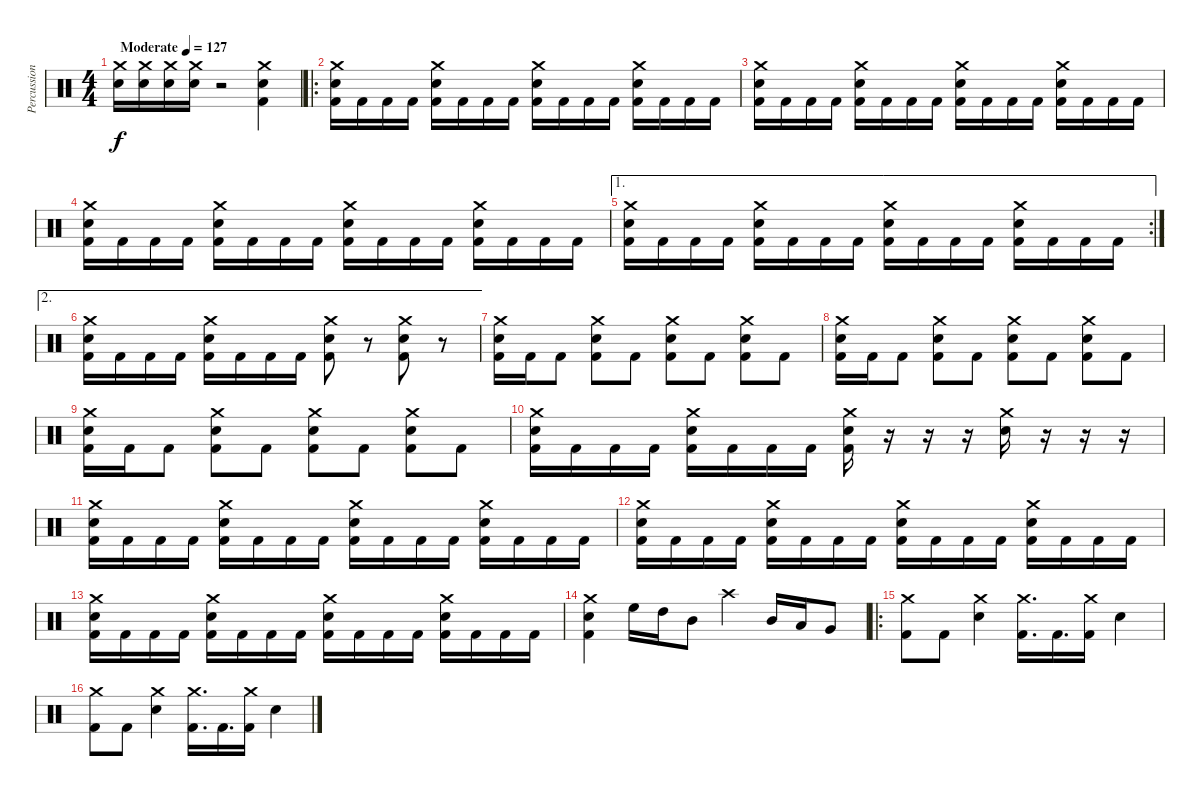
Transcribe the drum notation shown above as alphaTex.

\track ("Percussion" "Percussion") {instrument percussion}
\staff {score}
\articulation defaults
\ts (4 4)
\tempo (127 "Moderate")
\clef neutral
\ks c
("Crash medium (hit)" "Electric Snare (hit)").16{dy f} ("Crash medium (hit)" "Electric Snare (hit)").16 ("Crash medium (hit)" "Electric Snare (hit)").16 ("Crash medium (hit)" "Electric Snare (hit)").16 r.2 ("Crash medium (hit)" "Electric Snare (hit)" "Kick (hit) 2").4 |
\ro
("Crash medium (hit)" "Electric Snare (hit)" "Kick (hit) 2").16 "Kick (hit) 2".16 "Kick (hit) 2".16 "Kick (hit) 2".16 ("Crash medium (hit)" "Electric Snare (hit)" "Kick (hit) 2").16 "Kick (hit) 2".16 "Kick (hit) 2".16 "Kick (hit) 2".16 ("Crash medium (hit)" "Electric Snare (hit)" "Kick (hit) 2").16 "Kick (hit) 2".16 "Kick (hit) 2".16 "Kick (hit) 2".16 ("Crash medium (hit)" "Electric Snare (hit)" "Kick (hit) 2").16 "Kick (hit) 2".16 "Kick (hit) 2".16 "Kick (hit) 2".16 |
("Crash medium (hit)" "Electric Snare (hit)" "Kick (hit) 2").16 "Kick (hit) 2".16 "Kick (hit) 2".16 "Kick (hit) 2".16 ("Crash medium (hit)" "Electric Snare (hit)" "Kick (hit) 2").16 "Kick (hit) 2".16 "Kick (hit) 2".16 "Kick (hit) 2".16 ("Crash medium (hit)" "Electric Snare (hit)" "Kick (hit) 2").16 "Kick (hit) 2".16 "Kick (hit) 2".16 "Kick (hit) 2".16 ("Crash medium (hit)" "Electric Snare (hit)" "Kick (hit) 2").16 "Kick (hit) 2".16 "Kick (hit) 2".16 "Kick (hit) 2".16 |
("Crash medium (hit)" "Electric Snare (hit)" "Kick (hit) 2").16 "Kick (hit) 2".16 "Kick (hit) 2".16 "Kick (hit) 2".16 ("Crash medium (hit)" "Electric Snare (hit)" "Kick (hit) 2").16 "Kick (hit) 2".16 "Kick (hit) 2".16 "Kick (hit) 2".16 ("Crash medium (hit)" "Electric Snare (hit)" "Kick (hit) 2").16 "Kick (hit) 2".16 "Kick (hit) 2".16 "Kick (hit) 2".16 ("Crash medium (hit)" "Electric Snare (hit)" "Kick (hit) 2").16 "Kick (hit) 2".16 "Kick (hit) 2".16 "Kick (hit) 2".16 |
\ae 1
\rc 2
("Crash medium (hit)" "Electric Snare (hit)" "Kick (hit) 2").16 "Kick (hit) 2".16 "Kick (hit) 2".16 "Kick (hit) 2".16 ("Crash medium (hit)" "Electric Snare (hit)" "Kick (hit) 2").16 "Kick (hit) 2".16 "Kick (hit) 2".16 "Kick (hit) 2".16 ("Crash medium (hit)" "Electric Snare (hit)" "Kick (hit) 2").16 "Kick (hit) 2".16 "Kick (hit) 2".16 "Kick (hit) 2".16 ("Crash medium (hit)" "Electric Snare (hit)" "Kick (hit) 2").16 "Kick (hit) 2".16 "Kick (hit) 2".16 "Kick (hit) 2".16 |
\ae 2
("Crash medium (hit)" "Electric Snare (hit)" "Kick (hit) 2").16 "Kick (hit) 2".16 "Kick (hit) 2".16 "Kick (hit) 2".16 ("Crash medium (hit)" "Electric Snare (hit)" "Kick (hit) 2").16 "Kick (hit) 2".16 "Kick (hit) 2".16 "Kick (hit) 2".16 ("Crash medium (hit)" "Electric Snare (hit)" "Kick (hit) 2").8 r.8 ("Crash medium (hit)" "Electric Snare (hit)" "Kick (hit) 2").8 r.8 |
("Crash medium (hit)" "Electric Snare (hit)" "Kick (hit) 2").16 "Kick (hit) 2".16 "Kick (hit) 2".8 ("Crash medium (hit)" "Electric Snare (hit)" "Kick (hit) 2").8 "Kick (hit) 2".8 ("Crash medium (hit)" "Electric Snare (hit)" "Kick (hit) 2").8 "Kick (hit) 2".8 ("Crash medium (hit)" "Electric Snare (hit)" "Kick (hit) 2").8 "Kick (hit) 2".8 |
("Crash medium (hit)" "Electric Snare (hit)" "Kick (hit) 2").16 "Kick (hit) 2".16 "Kick (hit) 2".8 ("Crash medium (hit)" "Electric Snare (hit)" "Kick (hit) 2").8 "Kick (hit) 2".8 ("Crash medium (hit)" "Electric Snare (hit)" "Kick (hit) 2").8 "Kick (hit) 2".8 ("Crash medium (hit)" "Electric Snare (hit)" "Kick (hit) 2").8 "Kick (hit) 2".8 |
("Crash medium (hit)" "Electric Snare (hit)" "Kick (hit) 2").16 "Kick (hit) 2".16 "Kick (hit) 2".8 ("Crash medium (hit)" "Electric Snare (hit)" "Kick (hit) 2").8 "Kick (hit) 2".8 ("Crash medium (hit)" "Electric Snare (hit)" "Kick (hit) 2").8 "Kick (hit) 2".8 ("Crash medium (hit)" "Electric Snare (hit)" "Kick (hit) 2").8 "Kick (hit) 2".8 |
("Crash medium (hit)" "Electric Snare (hit)" "Kick (hit) 2").16 "Kick (hit) 2".16 "Kick (hit) 2".16 "Kick (hit) 2".16 ("Crash medium (hit)" "Electric Snare (hit)" "Kick (hit) 2").16 "Kick (hit) 2".16 "Kick (hit) 2".16 "Kick (hit) 2".16 ("Crash medium (hit)" "Electric Snare (hit)" "Kick (hit) 2").16 r.16 r.16 r.16 ("Crash medium (hit)" "Electric Snare (hit)").16 r.16 r.16 r.16 |
("Crash medium (hit)" "Electric Snare (hit)" "Kick (hit) 2").16 "Kick (hit) 2".16 "Kick (hit) 2".16 "Kick (hit) 2".16 ("Crash medium (hit)" "Electric Snare (hit)" "Kick (hit) 2").16 "Kick (hit) 2".16 "Kick (hit) 2".16 "Kick (hit) 2".16 ("Crash medium (hit)" "Electric Snare (hit)" "Kick (hit) 2").16 "Kick (hit) 2".16 "Kick (hit) 2".16 "Kick (hit) 2".16 ("Crash medium (hit)" "Electric Snare (hit)" "Kick (hit) 2").16 "Kick (hit) 2".16 "Kick (hit) 2".16 "Kick (hit) 2".16 |
("Crash medium (hit)" "Electric Snare (hit)" "Kick (hit) 2").16 "Kick (hit) 2".16 "Kick (hit) 2".16 "Kick (hit) 2".16 ("Crash medium (hit)" "Electric Snare (hit)" "Kick (hit) 2").16 "Kick (hit) 2".16 "Kick (hit) 2".16 "Kick (hit) 2".16 ("Crash medium (hit)" "Electric Snare (hit)" "Kick (hit) 2").16 "Kick (hit) 2".16 "Kick (hit) 2".16 "Kick (hit) 2".16 ("Crash medium (hit)" "Electric Snare (hit)" "Kick (hit) 2").16 "Kick (hit) 2".16 "Kick (hit) 2".16 "Kick (hit) 2".16 |
("Crash medium (hit)" "Electric Snare (hit)" "Kick (hit) 2").16 "Kick (hit) 2".16 "Kick (hit) 2".16 "Kick (hit) 2".16 ("Crash medium (hit)" "Electric Snare (hit)" "Kick (hit) 2").16 "Kick (hit) 2".16 "Kick (hit) 2".16 "Kick (hit) 2".16 ("Crash medium (hit)" "Electric Snare (hit)" "Kick (hit) 2").16 "Kick (hit) 2".16 "Kick (hit) 2".16 "Kick (hit) 2".16 ("Crash medium (hit)" "Electric Snare (hit)" "Kick (hit) 2").16 "Kick (hit) 2".16 "Kick (hit) 2".16 "Kick (hit) 2".16 |
("Crash medium (hit)" "Electric Snare (hit)" "Kick (hit) 2").4 "High Floor Tom (hit)".16 "High Tom (hit)".16 "Mid Tom (hit)".8 "Crash high (hit)".4 "Mid Tom (hit)".16 "Low Tom (hit)".16 "Very Low Tom (hit)".8 |
\ro
("Crash medium (hit)" "Kick (hit) 2").8 "Kick (hit) 2".8 ("Crash medium (hit)" "Electric Snare (hit)").4 ("Crash medium (hit)" "Kick (hit) 2").16{d} "Kick (hit) 2".16{d} ("Crash medium (hit)" "Kick (hit) 2").16 "Electric Snare (hit)".4 |
("Crash medium (hit)" "Kick (hit) 2").8 "Kick (hit) 2".8 ("Crash medium (hit)" "Electric Snare (hit)").4 ("Crash medium (hit)" "Kick (hit) 2").16{d} "Kick (hit) 2".16{d} ("Crash medium (hit)" "Kick (hit) 2").16 "Electric Snare (hit)".4
